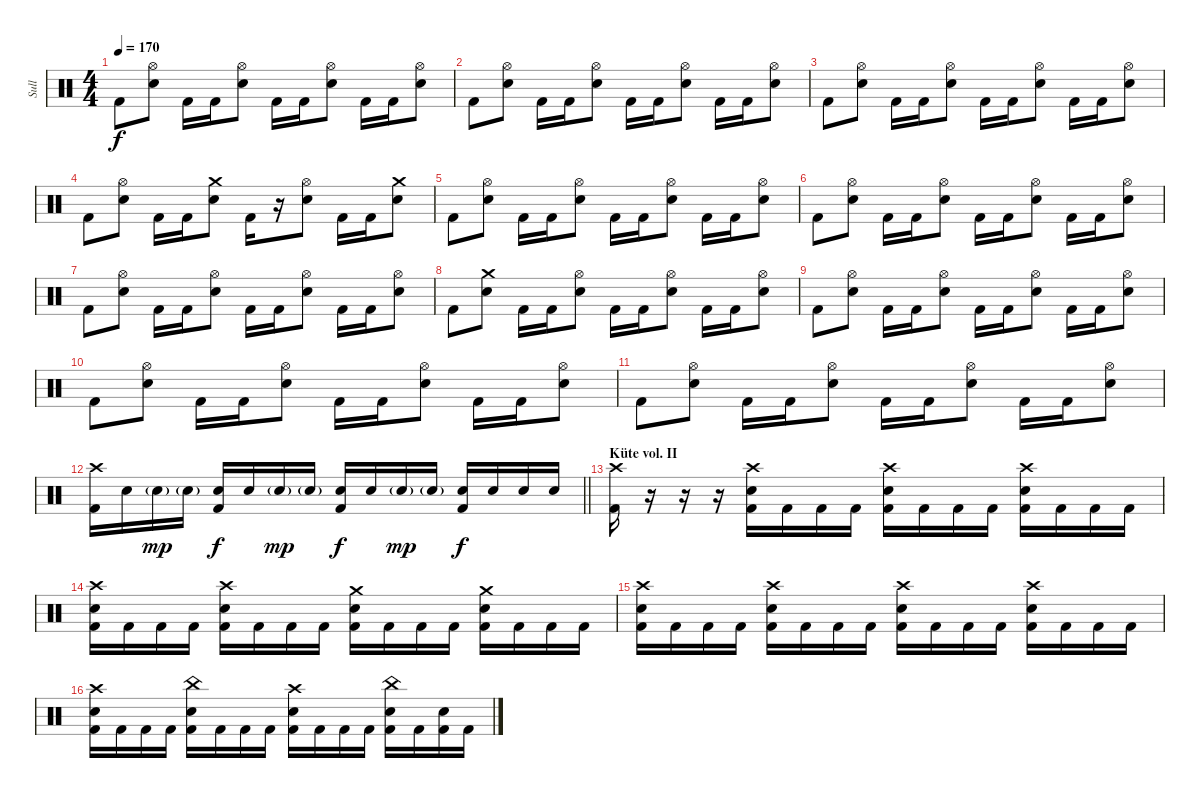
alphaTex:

\track ("Sull" "Sull") {instrument percussion}
\staff {score}
\articulation defaults
\ts (4 4)
\tempo 170
\clef neutral
\ks c "Kick (hit) 2".8{dy f}
("Hi-Hat (open)" "Electric Snare (hit)").8 "Kick (hit) 2".16 "Kick (hit) 2".16 ("Hi-Hat (open)" "Electric Snare (hit)").8 "Kick (hit) 2".16 "Kick (hit) 2".16 ("Hi-Hat (open)" "Electric Snare (hit)").8 "Kick (hit) 2".16 "Kick (hit) 2".16 ("Hi-Hat (open)" "Electric Snare (hit)").8 |
"Kick (hit) 2".8 ("Hi-Hat (open)" "Electric Snare (hit)").8 "Kick (hit) 2".16 "Kick (hit) 2".16 ("Hi-Hat (open)" "Electric Snare (hit)").8 "Kick (hit) 2".16 "Kick (hit) 2".16 ("Hi-Hat (open)" "Electric Snare (hit)").8 "Kick (hit) 2".16 "Kick (hit) 2".16 ("Hi-Hat (open)" "Electric Snare (hit)").8 |
"Kick (hit) 2".8 ("Hi-Hat (open)" "Electric Snare (hit)").8 "Kick (hit) 2".16 "Kick (hit) 2".16 ("Hi-Hat (open)" "Electric Snare (hit)").8 "Kick (hit) 2".16 "Kick (hit) 2".16 ("Hi-Hat (open)" "Electric Snare (hit)").8 "Kick (hit) 2".16 "Kick (hit) 2".16 ("Hi-Hat (open)" "Electric Snare (hit)").8 |
"Kick (hit) 2".8 ("Hi-Hat (open)" "Electric Snare (hit)").8 "Kick (hit) 2".16 "Kick (hit) 2".16 ("Crash medium (hit)" "Electric Snare (hit)").8 "Kick (hit) 2".16 r.16 ("Hi-Hat (open)" "Electric Snare (hit)").8 "Kick (hit) 2".16 "Kick (hit) 2".16 ("Crash medium (hit)" "Electric Snare (hit)").8 |
"Kick (hit) 2".8 ("Hi-Hat (open)" "Electric Snare (hit)").8 "Kick (hit) 2".16 "Kick (hit) 2".16 ("Hi-Hat (open)" "Electric Snare (hit)").8 "Kick (hit) 2".16 "Kick (hit) 2".16 ("Hi-Hat (open)" "Electric Snare (hit)").8 "Kick (hit) 2".16 "Kick (hit) 2".16 ("Hi-Hat (open)" "Electric Snare (hit)").8 |
"Kick (hit) 2".8 ("Hi-Hat (open)" "Electric Snare (hit)").8 "Kick (hit) 2".16 "Kick (hit) 2".16 ("Hi-Hat (open)" "Electric Snare (hit)").8 "Kick (hit) 2".16 "Kick (hit) 2".16 ("Hi-Hat (open)" "Electric Snare (hit)").8 "Kick (hit) 2".16 "Kick (hit) 2".16 ("Hi-Hat (open)" "Electric Snare (hit)").8 |
"Kick (hit) 2".8 ("Hi-Hat (open)" "Electric Snare (hit)").8 "Kick (hit) 2".16 "Kick (hit) 2".16 ("Hi-Hat (open)" "Electric Snare (hit)").8 "Kick (hit) 2".16 "Kick (hit) 2".16 ("Hi-Hat (open)" "Electric Snare (hit)").8 "Kick (hit) 2".16 "Kick (hit) 2".16 ("Hi-Hat (open)" "Electric Snare (hit)").8 |
"Kick (hit) 2".8 ("Crash medium (hit)" "Electric Snare (hit)").8 "Kick (hit) 2".16 "Kick (hit) 2".16 ("Hi-Hat (open)" "Electric Snare (hit)").8 "Kick (hit) 2".16 "Kick (hit) 2".16 ("Hi-Hat (open)" "Electric Snare (hit)").8 "Kick (hit) 2".16 "Kick (hit) 2".16 ("Hi-Hat (open)" "Electric Snare (hit)").8 |
"Kick (hit) 2".8 ("Hi-Hat (open)" "Electric Snare (hit)").8 "Kick (hit) 2".16 "Kick (hit) 2".16 ("Hi-Hat (open)" "Electric Snare (hit)").8 "Kick (hit) 2".16 "Kick (hit) 2".16 ("Hi-Hat (open)" "Electric Snare (hit)").8 "Kick (hit) 2".16 "Kick (hit) 2".16 ("Hi-Hat (open)" "Electric Snare (hit)").8 |
"Kick (hit) 2".8 ("Hi-Hat (open)" "Electric Snare (hit)").8 "Kick (hit) 2".16 "Kick (hit) 2".16 ("Hi-Hat (open)" "Electric Snare (hit)").8 "Kick (hit) 2".16 "Kick (hit) 2".16 ("Hi-Hat (open)" "Electric Snare (hit)").8 "Kick (hit) 2".16 "Kick (hit) 2".16 ("Hi-Hat (open)" "Electric Snare (hit)").8 |
"Kick (hit) 2".8 ("Hi-Hat (open)" "Electric Snare (hit)").8 "Kick (hit) 2".16 "Kick (hit) 2".16 ("Hi-Hat (open)" "Electric Snare (hit)").8 "Kick (hit) 2".16 "Kick (hit) 2".16 ("Hi-Hat (open)" "Electric Snare (hit)").8 "Kick (hit) 2".16 "Kick (hit) 2".16 ("Hi-Hat (open)" "Electric Snare (hit)").8 |
\barLineRight lightlight
("Crash high (hit)" "Kick (hit) 2").16 "Electric Snare (hit)".16 "Electric Snare (hit)"{g}.16{dy mp} "Electric Snare (hit)"{g}.16 ("Electric Snare (hit)" "Kick (hit) 2").16{dy f} "Electric Snare (hit)".16 "Electric Snare (hit)"{g}.16{dy mp} "Electric Snare (hit)"{g}.16 ("Electric Snare (hit)" "Kick (hit) 2").16{dy f} "Electric Snare (hit)".16 "Electric Snare (hit)"{g}.16{dy mp} "Electric Snare (hit)"{g}.16 ("Electric Snare (hit)" "Kick (hit) 2").16{dy f} "Electric Snare (hit)".16 "Electric Snare (hit)".16 "Electric Snare (hit)".16 |
\section ("" "Küte vol. II")
("Crash high (hit)" "Kick (hit) 2").16 r.16 r.16 r.16 ("Crash high (hit)" "Electric Snare (hit)" "Kick (hit) 2").16 "Kick (hit) 2".16 "Kick (hit) 2".16 "Kick (hit) 2".16 ("Crash high (hit)" "Electric Snare (hit)" "Kick (hit) 2").16 "Kick (hit) 2".16 "Kick (hit) 2".16 "Kick (hit) 2".16 ("Crash high (hit)" "Electric Snare (hit)" "Kick (hit) 2").16 "Kick (hit) 2".16 "Kick (hit) 2".16 "Kick (hit) 2".16 |
("Crash high (hit)" "Electric Snare (hit)" "Kick (hit) 2").16 "Kick (hit) 2".16 "Kick (hit) 2".16 "Kick (hit) 2".16 ("Crash high (hit)" "Electric Snare (hit)" "Kick (hit) 2").16 "Kick (hit) 2".16 "Kick (hit) 2".16 "Kick (hit) 2".16 ("Crash medium (hit)" "Electric Snare (hit)" "Kick (hit) 2").16 "Kick (hit) 2".16 "Kick (hit) 2".16 "Kick (hit) 2".16 ("Crash medium (hit)" "Electric Snare (hit)" "Kick (hit) 2").16 "Kick (hit) 2".16 "Kick (hit) 2".16 "Kick (hit) 2".16 |
("Crash high (hit)" "Electric Snare (hit)" "Kick (hit) 2").16 "Kick (hit) 2".16 "Kick (hit) 2".16 "Kick (hit) 2".16 ("Crash high (hit)" "Electric Snare (hit)" "Kick (hit) 2").16 "Kick (hit) 2".16 "Kick (hit) 2".16 "Kick (hit) 2".16 ("Crash high (hit)" "Electric Snare (hit)" "Kick (hit) 2").16 "Kick (hit) 2".16 "Kick (hit) 2".16 "Kick (hit) 2".16 ("Crash high (hit)" "Electric Snare (hit)" "Kick (hit) 2").16 "Kick (hit) 2".16 "Kick (hit) 2".16 "Kick (hit) 2".16 |
("Crash high (hit)" "Electric Snare (hit)" "Kick (hit) 2").16 "Kick (hit) 2".16 "Kick (hit) 2".16 "Kick (hit) 2".16 ("China (hit)" "Electric Snare (hit)" "Kick (hit) 2").16 "Kick (hit) 2".16 "Kick (hit) 2".16 "Kick (hit) 2".16 ("Crash high (hit)" "Electric Snare (hit)" "Kick (hit) 2").16 "Kick (hit) 2".16 "Kick (hit) 2".16 "Kick (hit) 2".16 ("China (hit)" "Electric Snare (hit)" "Kick (hit) 2").16 "Kick (hit) 2".16 ("Electric Snare (hit)" "Kick (hit) 2").16 "Kick (hit) 2".16
